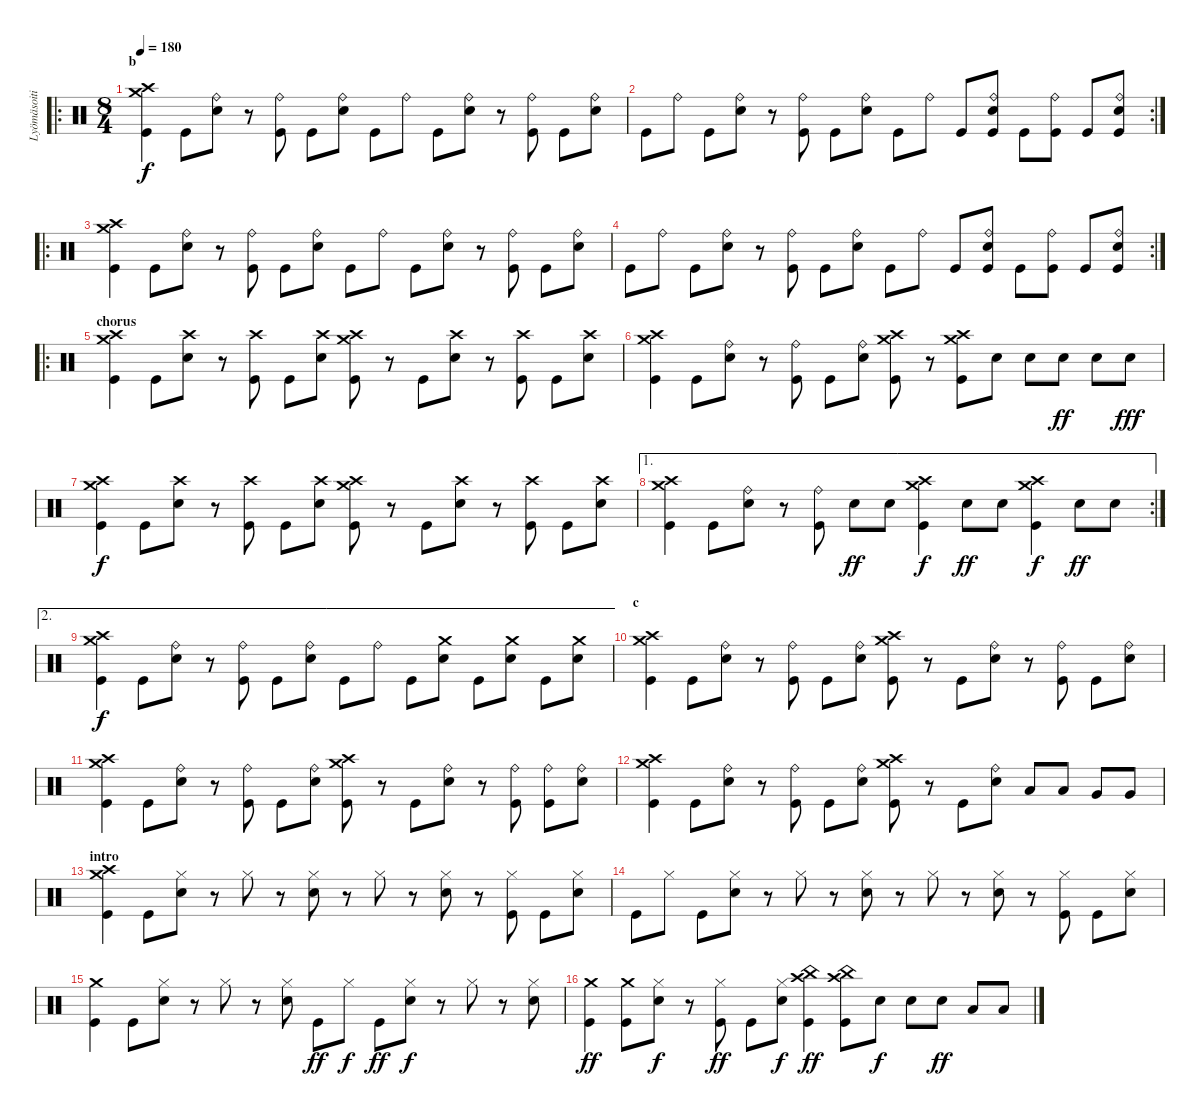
\track ("Lyömäsoitin" "Lyömäsoiti") {instrument percussion}
\staff {score}
\articulation defaults
\ro
\ts (8 4)
\section ("" "b")
\tempo 180
\clef neutral
\ks c
("Crash medium (hit)" "Crash high (hit)" "Kick (hit)").4{dy f} "Kick (hit)".8 ("Ride (bell)" "Snare (hit) 2").8 r.8 ("Ride (bell)" "Kick (hit)").8 "Kick (hit)".8 ("Ride (bell)" "Snare (hit) 2").8 "Kick (hit)".8 "Ride (bell)".8 "Kick (hit)".8 ("Ride (bell)" "Snare (hit) 2").8 r.8 ("Ride (bell)" "Kick (hit)").8 "Kick (hit)".8 ("Ride (bell)" "Snare (hit) 2").8 |
\rc 2 "Kick (hit)".8 "Ride (bell)".8 "Kick (hit)".8
("Ride (bell)" "Snare (hit) 2").8 r.8 ("Ride (bell)" "Kick (hit)").8 "Kick (hit)".8 ("Ride (bell)" "Snare (hit) 2").8 "Kick (hit)".8 "Ride (bell)".8 "Kick (hit)".8 ("Ride (bell)" "Snare (hit) 2" "Kick (hit)").8 "Kick (hit)".8 ("Ride (bell)" "Kick (hit)").8 "Kick (hit)".8 ("Ride (bell)" "Snare (hit) 2" "Kick (hit)").8 |
\ro
("Crash medium (hit)" "Crash high (hit)" "Kick (hit)").4 "Kick (hit)".8 ("Ride (bell)" "Snare (hit) 2").8 r.8 ("Ride (bell)" "Kick (hit)").8 "Kick (hit)".8 ("Ride (bell)" "Snare (hit) 2").8 "Kick (hit)".8 "Ride (bell)".8 "Kick (hit)".8 ("Ride (bell)" "Snare (hit) 2").8 r.8 ("Ride (bell)" "Kick (hit)").8 "Kick (hit)".8 ("Ride (bell)" "Snare (hit) 2").8 |
\rc 2 "Kick (hit)".8 "Ride (bell)".8 "Kick (hit)".8
("Ride (bell)" "Snare (hit) 2").8 r.8 ("Ride (bell)" "Kick (hit)").8 "Kick (hit)".8 ("Ride (bell)" "Snare (hit) 2").8 "Kick (hit)".8 "Ride (bell)".8 "Kick (hit)".8 ("Ride (bell)" "Snare (hit) 2" "Kick (hit)").8 "Kick (hit)".8 ("Ride (bell)" "Kick (hit)").8 "Kick (hit)".8 ("Ride (bell)" "Snare (hit) 2" "Kick (hit)").8 |
\ro
\section ("" "chorus")
("Crash medium (hit)" "Crash high (hit)" "Kick (hit)").4 "Kick (hit)".8 ("Crash high (hit)" "Snare (hit) 2").8 r.8 ("Crash high (hit)" "Kick (hit)").8 "Kick (hit)".8 ("Crash high (hit)" "Snare (hit) 2").8 ("Crash medium (hit)" "Crash high (hit)" "Kick (hit)").8 r.8 "Kick (hit)".8 ("Crash high (hit)" "Snare (hit) 2").8 r.8 ("Crash high (hit)" "Kick (hit)").8 "Kick (hit)".8 ("Crash high (hit)" "Snare (hit) 2").8 |
("Crash medium (hit)" "Crash high (hit)" "Kick (hit)").4 "Kick (hit)".8 ("Ride (bell)" "Snare (hit) 2").8 r.8 ("Ride (bell)" "Kick (hit)").8 "Kick (hit)".8 ("Ride (bell)" "Snare (hit) 2").8 ("Crash medium (hit)" "Crash high (hit)" "Kick (hit)").8 r.8 ("Crash medium (hit)" "Crash high (hit)" "Kick (hit)").8 "Snare (hit) 2".8 "Snare (hit) 2".8 "Snare (hit) 2".8{dy ff} "Snare (hit) 2".8 "Snare (hit) 2".8{dy fff} |
("Crash medium (hit)" "Crash high (hit)" "Kick (hit)").4{dy f} "Kick (hit)".8 ("Crash high (hit)" "Snare (hit) 2").8 r.8 ("Crash high (hit)" "Kick (hit)").8 "Kick (hit)".8 ("Crash high (hit)" "Snare (hit) 2").8 ("Crash medium (hit)" "Crash high (hit)" "Kick (hit)").8 r.8 "Kick (hit)".8 ("Crash high (hit)" "Snare (hit) 2").8 r.8 ("Crash high (hit)" "Kick (hit)").8 "Kick (hit)".8 ("Crash high (hit)" "Snare (hit) 2").8 |
\ae 1
\rc 2
("Crash medium (hit)" "Crash high (hit)" "Kick (hit)").4 "Kick (hit)".8 ("Ride (bell)" "Snare (hit) 2").8 r.8 ("Ride (bell)" "Kick (hit)").8 "Snare (hit) 2".8{dy ff} "Snare (hit) 2".8 ("Crash medium (hit)" "Crash high (hit)" "Kick (hit)").4{dy f} "Snare (hit) 2".8{dy ff} "Snare (hit) 2".8 ("Crash medium (hit)" "Crash high (hit)" "Kick (hit)").4{dy f} "Snare (hit) 2".8{dy ff} "Snare (hit) 2".8 |
\ae 2
("Crash medium (hit)" "Crash high (hit)" "Kick (hit)").4{dy f} "Kick (hit)".8 ("Ride (bell)" "Snare (hit) 2").8 r.8 ("Ride (bell)" "Kick (hit)").8 "Kick (hit)".8 ("Ride (bell)" "Snare (hit) 2").8 "Kick (hit)".8 "Ride (bell)".8 "Kick (hit)".8 ("Crash medium (hit)" "Snare (hit) 2").8 "Kick (hit)".8 ("Crash medium (hit)" "Snare (hit) 2").8 "Kick (hit)".8 ("Crash medium (hit)" "Snare (hit) 2").8 |
\section ("" "c")
("Crash medium (hit)" "Crash high (hit)" "Kick (hit)").4 "Kick (hit)".8 ("Ride (bell)" "Snare (hit) 2").8 r.8 ("Ride (bell)" "Kick (hit)").8 "Kick (hit)".8 ("Ride (bell)" "Snare (hit) 2").8 ("Crash medium (hit)" "Crash high (hit)" "Kick (hit)").8 r.8 "Kick (hit)".8 ("Ride (bell)" "Snare (hit) 2").8 r.8 ("Ride (bell)" "Kick (hit)").8 "Kick (hit)".8 ("Ride (bell)" "Snare (hit) 2").8 |
("Crash medium (hit)" "Crash high (hit)" "Kick (hit)").4 "Kick (hit)".8 ("Ride (bell)" "Snare (hit) 2").8 r.8 ("Ride (bell)" "Kick (hit)").8 "Kick (hit)".8 ("Ride (bell)" "Snare (hit) 2").8 ("Crash medium (hit)" "Crash high (hit)" "Kick (hit)").8 r.8 "Kick (hit)".8 ("Ride (bell)" "Snare (hit) 2").8 r.8 ("Ride (bell)" "Kick (hit)").8 ("Ride (bell)" "Kick (hit)").8 ("Ride (bell)" "Snare (hit) 2").8 |
("Crash medium (hit)" "Crash high (hit)" "Kick (hit)").4 "Kick (hit)".8 ("Ride (bell)" "Snare (hit) 2").8 r.8 ("Ride (bell)" "Kick (hit)").8 "Kick (hit)".8 ("Ride (bell)" "Snare (hit) 2").8 ("Crash medium (hit)" "Crash high (hit)" "Kick (hit)").8 r.8 "Kick (hit)".8 ("Ride (bell)" "Snare (hit) 2").8 "Low Tom (hit)".8 "Low Tom (hit)".8 "Very Low Tom (hit)".8 "Very Low Tom (hit)".8 |
\section ("" "intro")
("Crash medium (hit)" "Crash high (hit)" "Kick (hit)").4 "Kick (hit)".8 ("Hi-Hat (closed)" "Snare (hit) 2").8 r.8 "Hi-Hat (closed)".8 r.8 ("Hi-Hat (closed)" "Snare (hit) 2").8 r.8 "Hi-Hat (closed)".8 r.8 ("Hi-Hat (closed)" "Snare (hit) 2").8 r.8 ("Hi-Hat (closed)" "Kick (hit)").8 "Kick (hit)".8 ("Hi-Hat (closed)" "Snare (hit) 2").8 |
"Kick (hit)".8 "Hi-Hat (closed)".8 "Kick (hit)".8 ("Hi-Hat (closed)" "Snare (hit) 2").8 r.8 "Hi-Hat (closed)".8 r.8 ("Hi-Hat (closed)" "Snare (hit) 2").8 r.8 "Hi-Hat (closed)".8 r.8 ("Hi-Hat (closed)" "Snare (hit) 2").8 r.8 ("Hi-Hat (closed)" "Kick (hit)").8 "Kick (hit)".8 ("Hi-Hat (closed)" "Snare (hit) 2").8 |
("Crash medium (hit)" "Kick (hit)").4 "Kick (hit)".8 ("Hi-Hat (closed)" "Snare (hit) 2").8 r.8 "Hi-Hat (closed)".8 r.8 ("Hi-Hat (closed)" "Snare (hit) 2").8 "Kick (hit)".8{dy ff} "Hi-Hat (closed)".8{dy f} "Kick (hit)".8{dy ff} ("Hi-Hat (closed)" "Snare (hit) 2").8{dy f} r.8 "Hi-Hat (closed)".8 r.8 ("Hi-Hat (closed)" "Snare (hit) 2").8 |
("Crash medium (hit)" "Kick (hit)").4{dy ff} ("Crash medium (hit)" "Kick (hit)").8 ("Hi-Hat (closed)" "Snare (hit) 2").8{dy f} r.8 ("Hi-Hat (closed)" "Kick (hit)").8{dy ff} "Kick (hit)".8 ("Hi-Hat (closed)" "Snare (hit) 2").8{dy f} ("Crash high (hit)" "China (hit)" "Kick (hit)").4{dy ff} ("Crash high (hit)" "China (hit)" "Kick (hit)").8 "Snare (hit) 2".8{dy f} "Snare (hit) 2".8 "Snare (hit) 2".8{dy ff} "Low Tom (hit)".8 "Low Tom (hit)".8
